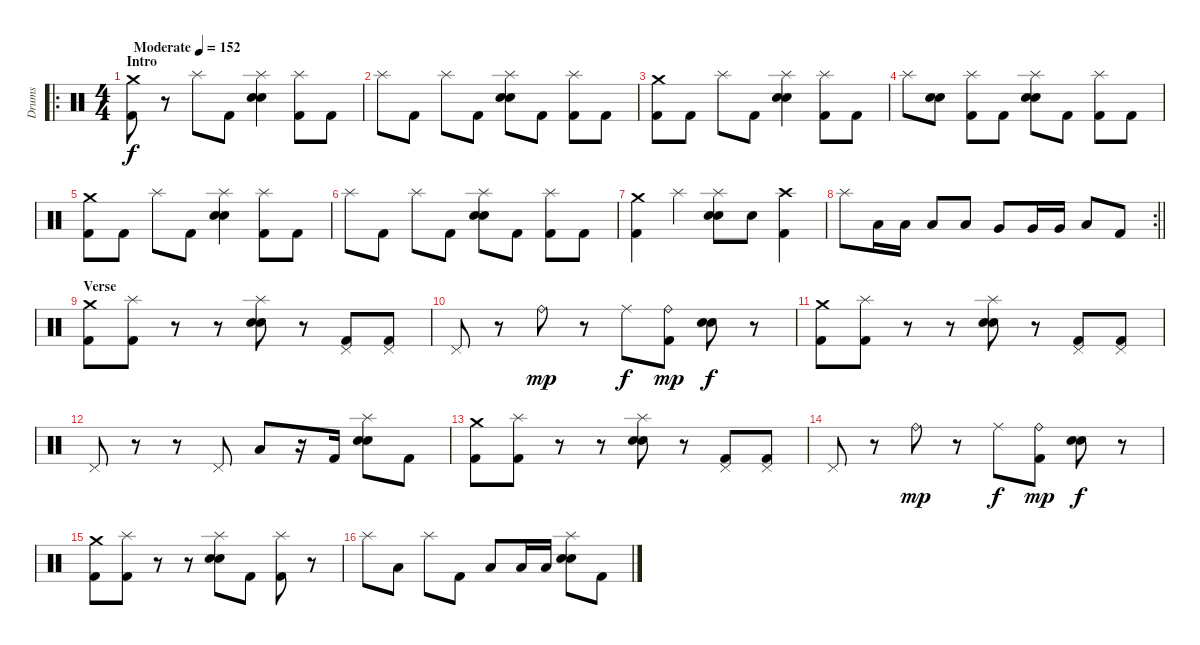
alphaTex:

\track ("Drums" "Drums") {instrument percussion}
\staff {score}
\articulation defaults
\ro
\ts (4 4)
\section ("" "Intro")
\tempo (152 "Moderate")
\clef neutral
\ks c
("Crash medium (hit)" "Kick (hit) 2").8{dy f} r.8 "Splash (hit)".8 "Kick (hit) 2".8 ("Splash (hit)" "Electric Snare (hit)" "Snare (hit) 2").4 ("Splash (hit)" "Kick (hit) 2").8 "Kick (hit) 2".8 |
"Splash (hit)".8 "Kick (hit) 2".8 "Splash (hit)".8 "Kick (hit) 2".8 ("Splash (hit)" "Electric Snare (hit)" "Snare (hit) 2").8 "Kick (hit) 2".8 ("Splash (hit)" "Kick (hit) 2").8 "Kick (hit) 2".8 |
("Crash medium (hit)" "Kick (hit) 2").8 "Kick (hit) 2".8 "Splash (hit)".8 "Kick (hit) 2".8 ("Splash (hit)" "Electric Snare (hit)" "Snare (hit) 2").4 ("Splash (hit)" "Kick (hit) 2").8 "Kick (hit) 2".8 |
"Splash (hit)".8 ("Electric Snare (hit)" "Snare (hit) 2").8 ("Splash (hit)" "Kick (hit) 2").8 "Kick (hit) 2".8 ("Splash (hit)" "Electric Snare (hit)" "Snare (hit) 2").8 "Kick (hit) 2".8 ("Splash (hit)" "Kick (hit) 2").8 "Kick (hit) 2".8 |
("Crash medium (hit)" "Kick (hit) 2").8 "Kick (hit) 2".8 "Splash (hit)".8 "Kick (hit) 2".8 ("Splash (hit)" "Electric Snare (hit)" "Snare (hit) 2").4 ("Splash (hit)" "Kick (hit) 2").8 "Kick (hit) 2".8 |
"Splash (hit)".8 "Kick (hit) 2".8 "Splash (hit)".8 "Kick (hit) 2".8 ("Splash (hit)" "Electric Snare (hit)" "Snare (hit) 2").8 "Kick (hit) 2".8 ("Splash (hit)" "Kick (hit) 2").8 "Kick (hit) 2".8 |
("Crash medium (hit)" "Kick (hit) 2").4 "Splash (hit)".4 ("Splash (hit)" "Electric Snare (hit)" "Snare (hit) 2").8 "Snare (hit) 2".8 ("Crash high (hit)" "Kick (hit) 2").4 |
\rc 2
\barLineRight lightlight "Splash (hit)".8 "Low Tom (hit)".16 "Low Tom (hit)".16 "Low Tom (hit)".8 "Low Tom (hit)".8 "Very Low Tom (hit)".8 "Very Low Tom (hit)".16 "Very Low Tom (hit)".16 "Low Floor Tom (hit)".8 "Kick (hit) 2".8
|
\section ("" "Verse")
("Crash medium (hit)" "Kick (hit) 2").8 ("Splash (hit)" "Kick (hit) 2").8 r.8 r.8 ("Splash (hit)" "Electric Snare (hit)" "Snare (hit) 2").8 r.8 ("Pedal Hi-Hat (hit)" "Kick (hit) 2").8 ("Pedal Hi-Hat (hit)" "Kick (hit) 2").8 |
"Pedal Hi-Hat (hit)".8 r.8 "Ride (bell)".8{dy mp} r.8 "Ride (middle)".8{dy f} ("Ride (bell)" "Kick (hit) 2").8{dy mp} ("Electric Snare (hit)" "Snare (hit) 2").8{dy f} r.8 |
("Crash medium (hit)" "Kick (hit) 2").8 ("Splash (hit)" "Kick (hit) 2").8 r.8 r.8 ("Splash (hit)" "Electric Snare (hit)" "Snare (hit) 2").8 r.8 ("Pedal Hi-Hat (hit)" "Kick (hit) 2").8 ("Pedal Hi-Hat (hit)" "Kick (hit) 2").8 |
"Pedal Hi-Hat (hit)".8 r.8 r.8 "Pedal Hi-Hat (hit)".8 "Low Tom (hit)".8 r.16 "Kick (hit) 2".16 ("Splash (hit)" "Electric Snare (hit)" "Snare (hit) 2").8 "Kick (hit) 2".8 |
("Crash medium (hit)" "Kick (hit) 2").8 ("Splash (hit)" "Kick (hit) 2").8 r.8 r.8 ("Splash (hit)" "Electric Snare (hit)" "Snare (hit) 2").8 r.8 ("Pedal Hi-Hat (hit)" "Kick (hit) 2").8 ("Pedal Hi-Hat (hit)" "Kick (hit) 2").8 |
"Pedal Hi-Hat (hit)".8 r.8 "Ride (bell)".8{dy mp} r.8 "Ride (middle)".8{dy f} ("Ride (bell)" "Kick (hit) 2").8{dy mp} ("Electric Snare (hit)" "Snare (hit) 2").8{dy f} r.8 |
("Crash medium (hit)" "Kick (hit) 2").8 ("Splash (hit)" "Kick (hit) 2").8 r.8 r.8 ("Splash (hit)" "Electric Snare (hit)" "Snare (hit) 2").8 "Kick (hit) 2".8 ("Splash (hit)" "Kick (hit) 2").8 r.8 |
"Splash (hit)".8 "Low Tom (hit)".8 "Splash (hit)".8 "Kick (hit) 2".8 "Low Tom (hit)".8 "Low Tom (hit)".16 "Low Tom (hit)".16 ("Splash (hit)" "Electric Snare (hit)" "Snare (hit) 2").8 "Kick (hit) 2".8
